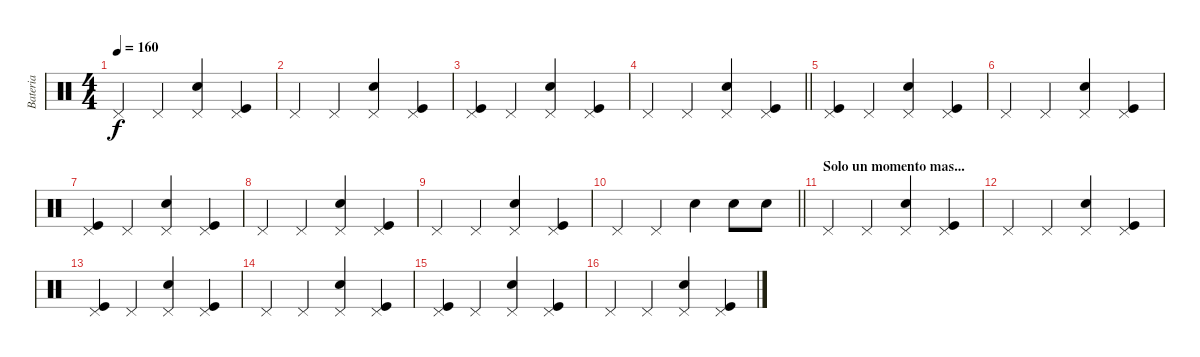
\track ("Bateria" "Bateria") {instrument percussion}
\staff {score}
\articulation defaults
\ts (4 4)
\tempo 160
\clef neutral
\ks c "Pedal Hi-Hat (hit)".4{dy f} "Pedal Hi-Hat (hit)".4
("Snare (hit) 2" "Pedal Hi-Hat (hit)").4 ("Kick (hit)" "Pedal Hi-Hat (hit)").4 |
"Pedal Hi-Hat (hit)".4 "Pedal Hi-Hat (hit)".4 ("Snare (hit) 2" "Pedal Hi-Hat (hit)").4 ("Kick (hit)" "Pedal Hi-Hat (hit)").4 |
("Kick (hit)" "Pedal Hi-Hat (hit)").4 "Pedal Hi-Hat (hit)".4 ("Snare (hit) 2" "Pedal Hi-Hat (hit)").4 ("Kick (hit)" "Pedal Hi-Hat (hit)").4 |
\barLineRight lightlight "Pedal Hi-Hat (hit)".4 "Pedal Hi-Hat (hit)".4
("Snare (hit) 2" "Pedal Hi-Hat (hit)").4 ("Kick (hit)" "Pedal Hi-Hat (hit)").4 |
("Kick (hit)" "Pedal Hi-Hat (hit)").4 "Pedal Hi-Hat (hit)".4 ("Snare (hit) 2" "Pedal Hi-Hat (hit)").4 ("Kick (hit)" "Pedal Hi-Hat (hit)").4 |
"Pedal Hi-Hat (hit)".4 "Pedal Hi-Hat (hit)".4 ("Snare (hit) 2" "Pedal Hi-Hat (hit)").4 ("Kick (hit)" "Pedal Hi-Hat (hit)").4 |
("Kick (hit)" "Pedal Hi-Hat (hit)").4 "Pedal Hi-Hat (hit)".4 ("Snare (hit) 2" "Pedal Hi-Hat (hit)").4 ("Kick (hit)" "Pedal Hi-Hat (hit)").4 |
"Pedal Hi-Hat (hit)".4 "Pedal Hi-Hat (hit)".4 ("Snare (hit) 2" "Pedal Hi-Hat (hit)").4 ("Kick (hit)" "Pedal Hi-Hat (hit)").4 |
"Pedal Hi-Hat (hit)".4 "Pedal Hi-Hat (hit)".4 ("Snare (hit) 2" "Pedal Hi-Hat (hit)").4 ("Kick (hit)" "Pedal Hi-Hat (hit)").4 |
\barLineRight lightlight "Pedal Hi-Hat (hit)".4 "Pedal Hi-Hat (hit)".4 "Snare (hit) 2".4 "Snare (hit) 2".8 "Snare (hit) 2".8
|
\section ("" "Solo un momento mas...")
"Pedal Hi-Hat (hit)".4 "Pedal Hi-Hat (hit)".4 ("Snare (hit) 2" "Pedal Hi-Hat (hit)").4 ("Kick (hit)" "Pedal Hi-Hat (hit)").4 |
"Pedal Hi-Hat (hit)".4 "Pedal Hi-Hat (hit)".4 ("Snare (hit) 2" "Pedal Hi-Hat (hit)").4 ("Kick (hit)" "Pedal Hi-Hat (hit)").4 |
("Kick (hit)" "Pedal Hi-Hat (hit)").4 "Pedal Hi-Hat (hit)".4 ("Snare (hit) 2" "Pedal Hi-Hat (hit)").4 ("Kick (hit)" "Pedal Hi-Hat (hit)").4 |
"Pedal Hi-Hat (hit)".4 "Pedal Hi-Hat (hit)".4 ("Snare (hit) 2" "Pedal Hi-Hat (hit)").4 ("Kick (hit)" "Pedal Hi-Hat (hit)").4 |
("Kick (hit)" "Pedal Hi-Hat (hit)").4 "Pedal Hi-Hat (hit)".4 ("Snare (hit) 2" "Pedal Hi-Hat (hit)").4 ("Kick (hit)" "Pedal Hi-Hat (hit)").4 |
"Pedal Hi-Hat (hit)".4 "Pedal Hi-Hat (hit)".4 ("Snare (hit) 2" "Pedal Hi-Hat (hit)").4 ("Kick (hit)" "Pedal Hi-Hat (hit)").4
